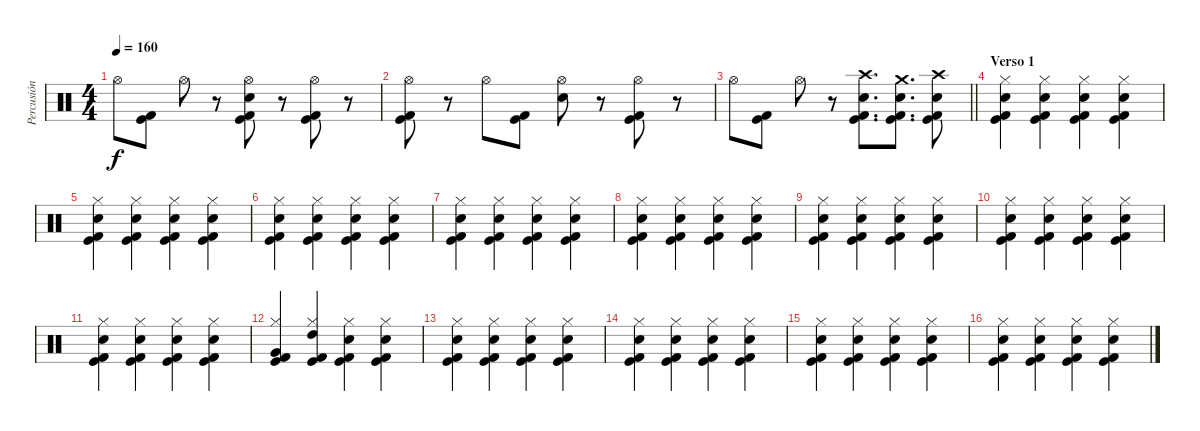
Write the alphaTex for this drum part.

\track ("Percusión" "Percusión") {instrument percussion}
\staff {score}
\articulation defaults
\ts (4 4)
\tempo 160
\clef neutral
\ks c "Hi-Hat (open)".8{dy f}
("Kick (hit)" "Kick (hit) 2").8 "Hi-Hat (open)".8 r.8 ("Hi-Hat (open)" "Electric Snare (hit)" "Kick (hit)" "Kick (hit) 2").8 r.8 ("Hi-Hat (open)" "Kick (hit)" "Kick (hit) 2").8 r.8 |
("Hi-Hat (open)" "Kick (hit)" "Kick (hit) 2").8 r.8 "Hi-Hat (open)".8 ("Kick (hit)" "Kick (hit) 2").8 ("Hi-Hat (open)" "Electric Snare (hit)").8 r.8 ("Hi-Hat (open)" "Kick (hit)" "Kick (hit) 2").8 r.8 |
\barLineRight lightlight "Hi-Hat (open)".8
("Kick (hit)" "Kick (hit) 2").8 "Hi-Hat (open)".8 r.8 ("Crash high (hit)" "Electric Snare (hit)" "Kick (hit)" "Kick (hit) 2").8{d} ("Crash medium (hit)" "Electric Snare (hit)" "Kick (hit)" "Kick (hit) 2").8{d} ("Crash high (hit)" "Electric Snare (hit)" "Kick (hit)" "Kick (hit) 2").8 |
\section ("" "Verso 1")
("Hi-Hat (closed)" "Electric Snare (hit)" "Kick (hit)" "Kick (hit) 2").4 ("Hi-Hat (closed)" "Electric Snare (hit)" "Kick (hit)" "Kick (hit) 2").4 ("Hi-Hat (closed)" "Electric Snare (hit)" "Kick (hit)" "Kick (hit) 2").4 ("Hi-Hat (closed)" "Electric Snare (hit)" "Kick (hit)" "Kick (hit) 2").4 |
("Hi-Hat (closed)" "Electric Snare (hit)" "Kick (hit)" "Kick (hit) 2").4 ("Hi-Hat (closed)" "Electric Snare (hit)" "Kick (hit)" "Kick (hit) 2").4 ("Hi-Hat (closed)" "Electric Snare (hit)" "Kick (hit)" "Kick (hit) 2").4 ("Hi-Hat (closed)" "Electric Snare (hit)" "Kick (hit)" "Kick (hit) 2").4 |
("Hi-Hat (closed)" "Electric Snare (hit)" "Kick (hit)" "Kick (hit) 2").4 ("Hi-Hat (closed)" "Electric Snare (hit)" "Kick (hit)" "Kick (hit) 2").4 ("Hi-Hat (closed)" "Electric Snare (hit)" "Kick (hit)" "Kick (hit) 2").4 ("Hi-Hat (closed)" "Electric Snare (hit)" "Kick (hit)" "Kick (hit) 2").4 |
("Hi-Hat (closed)" "Electric Snare (hit)" "Kick (hit)" "Kick (hit) 2").4 ("Hi-Hat (closed)" "Electric Snare (hit)" "Kick (hit)" "Kick (hit) 2").4 ("Hi-Hat (closed)" "Electric Snare (hit)" "Kick (hit)" "Kick (hit) 2").4 ("Hi-Hat (closed)" "Electric Snare (hit)" "Kick (hit)" "Kick (hit) 2").4 |
("Hi-Hat (closed)" "Electric Snare (hit)" "Kick (hit)" "Kick (hit) 2").4 ("Hi-Hat (closed)" "Electric Snare (hit)" "Kick (hit)" "Kick (hit) 2").4 ("Hi-Hat (closed)" "Electric Snare (hit)" "Kick (hit)" "Kick (hit) 2").4 ("Hi-Hat (closed)" "Electric Snare (hit)" "Kick (hit)" "Kick (hit) 2").4 |
("Hi-Hat (closed)" "Electric Snare (hit)" "Kick (hit)" "Kick (hit) 2").4 ("Hi-Hat (closed)" "Electric Snare (hit)" "Kick (hit)" "Kick (hit) 2").4 ("Hi-Hat (closed)" "Electric Snare (hit)" "Kick (hit)" "Kick (hit) 2").4 ("Hi-Hat (closed)" "Electric Snare (hit)" "Kick (hit)" "Kick (hit) 2").4 |
("Hi-Hat (closed)" "Electric Snare (hit)" "Kick (hit)" "Kick (hit) 2").4 ("Hi-Hat (closed)" "Electric Snare (hit)" "Kick (hit)" "Kick (hit) 2").4 ("Hi-Hat (closed)" "Electric Snare (hit)" "Kick (hit)" "Kick (hit) 2").4 ("Hi-Hat (closed)" "Electric Snare (hit)" "Kick (hit)" "Kick (hit) 2").4 |
("Hi-Hat (closed)" "Electric Snare (hit)" "Kick (hit)" "Kick (hit) 2").4 ("Hi-Hat (closed)" "Electric Snare (hit)" "Kick (hit)" "Kick (hit) 2").4 ("Hi-Hat (closed)" "Electric Snare (hit)" "Kick (hit)" "Kick (hit) 2").4 ("Hi-Hat (closed)" "Electric Snare (hit)" "Kick (hit)" "Kick (hit) 2").4 |
("Hi-Hat (closed)" "Very Low Tom (hit)" "Kick (hit)" "Kick (hit) 2").4 ("Hi-Hat (closed)" "High Tom (hit)" "Kick (hit)" "Kick (hit) 2").4 ("Hi-Hat (closed)" "Electric Snare (hit)" "Kick (hit)" "Kick (hit) 2").4 ("Hi-Hat (closed)" "Electric Snare (hit)" "Kick (hit)" "Kick (hit) 2").4 |
("Hi-Hat (closed)" "Electric Snare (hit)" "Kick (hit)" "Kick (hit) 2").4 ("Hi-Hat (closed)" "Electric Snare (hit)" "Kick (hit)" "Kick (hit) 2").4 ("Hi-Hat (closed)" "Electric Snare (hit)" "Kick (hit)" "Kick (hit) 2").4 ("Hi-Hat (closed)" "Electric Snare (hit)" "Kick (hit)" "Kick (hit) 2").4 |
("Hi-Hat (closed)" "Electric Snare (hit)" "Kick (hit)" "Kick (hit) 2").4 ("Hi-Hat (closed)" "Electric Snare (hit)" "Kick (hit)" "Kick (hit) 2").4 ("Hi-Hat (closed)" "Electric Snare (hit)" "Kick (hit)" "Kick (hit) 2").4 ("Hi-Hat (closed)" "Electric Snare (hit)" "Kick (hit)" "Kick (hit) 2").4 |
("Hi-Hat (closed)" "Electric Snare (hit)" "Kick (hit)" "Kick (hit) 2").4 ("Hi-Hat (closed)" "Electric Snare (hit)" "Kick (hit)" "Kick (hit) 2").4 ("Hi-Hat (closed)" "Electric Snare (hit)" "Kick (hit)" "Kick (hit) 2").4 ("Hi-Hat (closed)" "Electric Snare (hit)" "Kick (hit)" "Kick (hit) 2").4 |
("Hi-Hat (closed)" "Electric Snare (hit)" "Kick (hit)" "Kick (hit) 2").4 ("Hi-Hat (closed)" "Electric Snare (hit)" "Kick (hit)" "Kick (hit) 2").4 ("Hi-Hat (closed)" "Electric Snare (hit)" "Kick (hit)" "Kick (hit) 2").4 ("Hi-Hat (closed)" "Electric Snare (hit)" "Kick (hit)" "Kick (hit) 2").4
